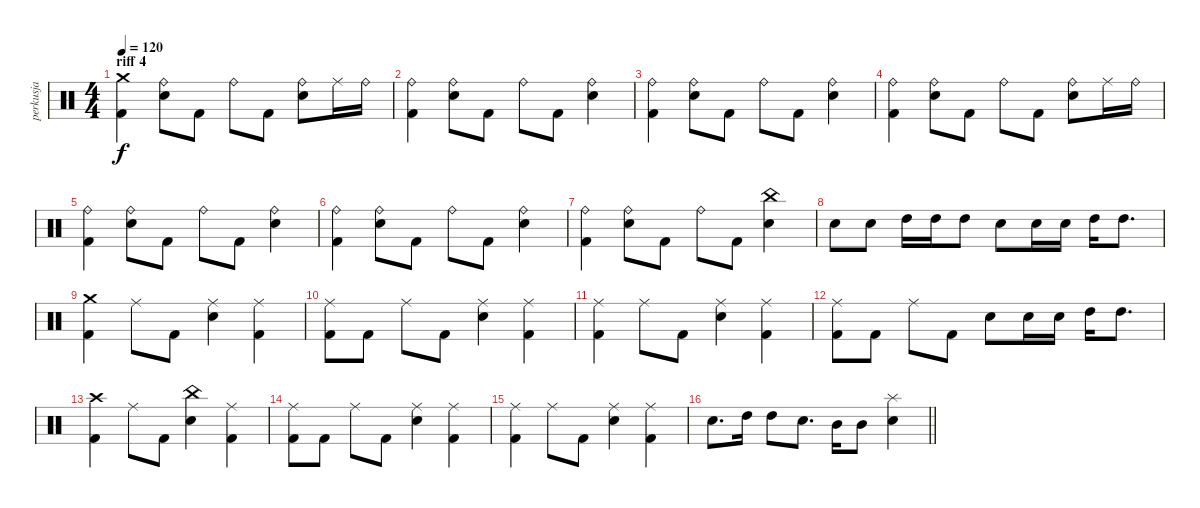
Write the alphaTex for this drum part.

\track ("perkusja" "perkusja") {instrument percussion}
\staff {score}
\articulation defaults
\ts (4 4)
\section ("" "riff 4")
\tempo 120
\clef neutral
\ks c
("Crash medium (hit)" "Kick (hit) 2").4{dy f} ("Ride (bell)" "Electric Snare (hit)").8 "Kick (hit) 2".8 "Ride (bell)".8 "Kick (hit) 2".8 ("Ride (bell)" "Electric Snare (hit)").8 "Ride (middle)".16 "Ride (bell)".16 |
("Ride (bell)" "Kick (hit) 2").4 ("Ride (bell)" "Electric Snare (hit)").8 "Kick (hit) 2".8 "Ride (bell)".8 "Kick (hit) 2".8 ("Ride (bell)" "Electric Snare (hit)").4 |
("Ride (bell)" "Kick (hit) 2").4 ("Ride (bell)" "Electric Snare (hit)").8 "Kick (hit) 2".8 "Ride (bell)".8 "Kick (hit) 2".8 ("Ride (bell)" "Electric Snare (hit)").4 |
("Ride (bell)" "Kick (hit) 2").4 ("Ride (bell)" "Electric Snare (hit)").8 "Kick (hit) 2".8 "Ride (bell)".8 "Kick (hit) 2".8 ("Ride (bell)" "Electric Snare (hit)").8 "Ride (middle)".16 "Ride (bell)".16 |
("Ride (bell)" "Kick (hit) 2").4 ("Ride (bell)" "Electric Snare (hit)").8 "Kick (hit) 2".8 "Ride (bell)".8 "Kick (hit) 2".8 ("Ride (bell)" "Electric Snare (hit)").4 |
("Ride (bell)" "Kick (hit) 2").4 ("Ride (bell)" "Electric Snare (hit)").8 "Kick (hit) 2".8 "Ride (bell)".8 "Kick (hit) 2".8 ("Ride (bell)" "Electric Snare (hit)").4 |
("Ride (bell)" "Kick (hit) 2").4 ("Ride (bell)" "Electric Snare (hit)").8 "Kick (hit) 2".8 "Ride (bell)".8 "Kick (hit) 2".8 ("China (hit)" "Electric Snare (hit)").4 |
"Electric Snare (hit)".8 "Electric Snare (hit)".8 "High Tom (hit)".16 "High Tom (hit)".16 "High Tom (hit)".8 "Electric Snare (hit)".8 "Electric Snare (hit)".16 "Electric Snare (hit)".16 "High Tom (hit)".16 "High Tom (hit)".8{d} |
("Crash medium (hit)" "Kick (hit) 2").4 "Ride (middle)".8 "Kick (hit) 2".8 ("Ride (middle)" "Electric Snare (hit)").4 ("Ride (middle)" "Kick (hit) 2").4 |
("Ride (middle)" "Kick (hit) 2").8 "Kick (hit) 2".8 "Ride (middle)".8 "Kick (hit) 2".8 ("Ride (middle)" "Electric Snare (hit)").4 ("Ride (middle)" "Kick (hit) 2").4 |
("Ride (middle)" "Kick (hit) 2").4 "Ride (middle)".8 "Kick (hit) 2".8 ("Ride (middle)" "Electric Snare (hit)").4 ("Ride (middle)" "Kick (hit) 2").4 |
("Ride (middle)" "Kick (hit) 2").8 "Kick (hit) 2".8 "Ride (middle)".8 "Kick (hit) 2".8 "Electric Snare (hit)".8 "Electric Snare (hit)".16 "Electric Snare (hit)".16 "High Tom (hit)".16 "High Tom (hit)".8{d} |
("Crash high (hit)" "Kick (hit) 2").4 "Ride (middle)".8 "Kick (hit) 2".8 ("China (hit)" "Electric Snare (hit)").4 ("Ride (middle)" "Kick (hit) 2").4 |
("Ride (middle)" "Kick (hit) 2").8 "Kick (hit) 2".8 "Ride (middle)".8 "Kick (hit) 2".8 ("Ride (middle)" "Electric Snare (hit)").4 ("Ride (middle)" "Kick (hit) 2").4 |
("Ride (middle)" "Kick (hit) 2").4 "Ride (middle)".8 "Kick (hit) 2".8 ("Ride (middle)" "Electric Snare (hit)").4 ("Ride (middle)" "Kick (hit) 2").4 |
\barLineRight lightlight "Electric Snare (hit)".8{d} "High Tom (hit)".16 "High Tom (hit)".8 "Electric Snare (hit)".8{d} "Mid Tom (hit)".16 "Mid Tom (hit)".8
("Splash (hit)" "Electric Snare (hit)").4
